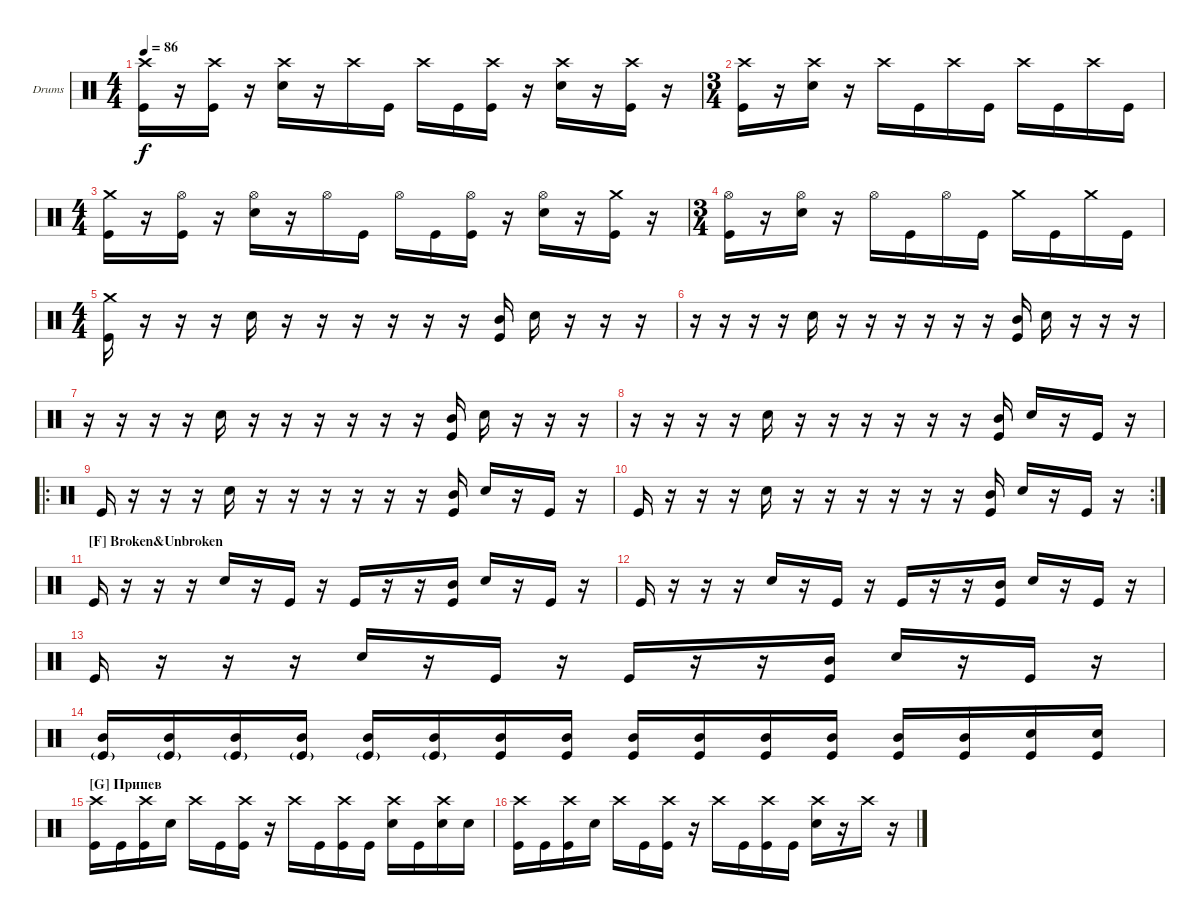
\bracketExtendMode groupsimilarinstruments
\firstSystemTrackNameOrientation horizontal
\otherSystemsTrackNameOrientation horizontal
\track ("Drumkit" "Drums") {instrument percussion}
\staff {score}
\articulation defaults
\ts (4 4)
\tempo 86
\clef neutral
\ks c
("Crash high (hit)" "Kick (hit)").16{dy f} r.16 ("Crash high (hit)" "Kick (hit)").16 r.16 ("Crash high (hit)" "Snare (hit) 2").16 r.16 "Crash high (hit)".16 "Kick (hit)".16 "Crash high (hit)".16 "Kick (hit)".16 ("Crash high (hit)" "Kick (hit)").16 r.16 ("Crash high (hit)" "Snare (hit) 2").16 r.16 ("Crash high (hit)" "Kick (hit)").16 r.16 |
\ts (3 4)
("Crash high (hit)" "Kick (hit)").16 r.16 ("Crash high (hit)" "Snare (hit) 2").16 r.16 "Crash high (hit)".16 "Kick (hit)".16 "Crash high (hit)".16 "Kick (hit)".16 "Crash high (hit)".16 "Kick (hit)".16 "Crash high (hit)".16 "Kick (hit)".16 |
\ts (4 4)
("Crash medium (hit)" "Kick (hit)").16 r.16 ("Hi-Hat (open)" "Kick (hit)").16 r.16 ("Snare (hit) 2" "Hi-Hat (open)").16 r.16 "Hi-Hat (open)".16 "Kick (hit)".16 "Hi-Hat (open)".16 "Kick (hit)".16 ("Kick (hit)" "Hi-Hat (open)").16 r.16 ("Snare (hit) 2" "Hi-Hat (open)").16 r.16 ("Crash medium (hit)" "Kick (hit)").16 r.16 |
\ts (3 4)
("Hi-Hat (open)" "Kick (hit)").16 r.16 ("Snare (hit) 2" "Hi-Hat (open)").16 r.16 "Hi-Hat (open)".16 "Kick (hit)".16 "Hi-Hat (open)".16 "Kick (hit)".16 "Crash medium (hit)".16 "Kick (hit)".16 "Crash medium (hit)".16 "Kick (hit)".16 |
\ts (4 4)
("Kick (hit)" "Crash medium (hit)").16 r.16 r.16 r.16 "Snare (hit) 2".16 r.16 r.16 r.16 r.16 r.16 r.16 ("Kick (hit)" "Mid Tom (hit)").16 "Snare (hit) 2".16 r.16 r.16 r.16 |
r.16 r.16 r.16 r.16 "Snare (hit) 2".16 r.16 r.16 r.16 r.16 r.16 r.16 ("Kick (hit)" "Mid Tom (hit)").16 "Snare (hit) 2".16 r.16 r.16 r.16 |
r.16 r.16 r.16 r.16 "Snare (hit) 2".16 r.16 r.16 r.16 r.16 r.16 r.16 ("Kick (hit)" "Mid Tom (hit)").16 "Snare (hit) 2".16 r.16 r.16 r.16 |
r.16 r.16 r.16 r.16 "Snare (hit) 2".16 r.16 r.16 r.16 r.16 r.16 r.16 ("Kick (hit)" "Mid Tom (hit)").16 "Snare (hit) 2".16 r.16 "Kick (hit)".16 r.16 |
\ro "Kick (hit)".16
r.16 r.16 r.16 "Snare (hit) 2".16 r.16 r.16 r.16 r.16 r.16 r.16 ("Kick (hit)" "Mid Tom (hit)").16 "Snare (hit) 2".16 r.16 "Kick (hit)".16 r.16 |
\rc 2 "Kick (hit)".16
r.16 r.16 r.16 "Snare (hit) 2".16 r.16 r.16 r.16 r.16 r.16 r.16 ("Kick (hit)" "Mid Tom (hit)").16 "Snare (hit) 2".16 r.16 "Kick (hit)".16 r.16 |
\section ("F" "Broken&Unbroken")
"Kick (hit)".16 r.16 r.16 r.16 "Snare (hit) 2".16 r.16 "Kick (hit)".16 r.16 "Kick (hit)".16 r.16 r.16 ("Kick (hit)" "Mid Tom (hit)").16 "Snare (hit) 2".16 r.16 "Kick (hit)".16 r.16 |
"Kick (hit)".16 r.16 r.16 r.16 "Snare (hit) 2".16 r.16 "Kick (hit)".16 r.16 "Kick (hit)".16 r.16 r.16 ("Kick (hit)" "Mid Tom (hit)").16 "Snare (hit) 2".16 r.16 "Kick (hit)".16 r.16 |
"Kick (hit)".16 r.16 r.16 r.16 "Snare (hit) 2".16 r.16 "Kick (hit)".16 r.16 "Kick (hit)".16 r.16 r.16 ("Kick (hit)" "Mid Tom (hit)").16 "Snare (hit) 2".16 r.16 "Kick (hit)".16 r.16 |
("Kick (hit)"{g} "Mid Tom (hit)").16 ("Kick (hit)"{g} "Mid Tom (hit)").16 ("Kick (hit)"{g} "Mid Tom (hit)").16 ("Kick (hit)"{g} "Mid Tom (hit)").16 ("Kick (hit)"{g} "Mid Tom (hit)").16 ("Kick (hit)"{g} "Mid Tom (hit)").16 ("Kick (hit)" "Mid Tom (hit)").16 ("Kick (hit)" "Mid Tom (hit)").16 ("Kick (hit)" "Mid Tom (hit)").16 ("Mid Tom (hit)" "Kick (hit)").16 ("Mid Tom (hit)" "Kick (hit)").16 ("Kick (hit)" "Mid Tom (hit)").16 ("Mid Tom (hit)" "Kick (hit)").16 ("Mid Tom (hit)" "Kick (hit)").16 ("Snare (hit) 2" "Kick (hit)").16 ("Snare (hit) 2" "Kick (hit)").16 |
\section ("G" "Припев")
("Crash high (hit)" "Kick (hit)").16 "Kick (hit)".16 ("Crash high (hit)" "Kick (hit)").16 "Snare (hit) 2".16 "Crash high (hit)".16 "Kick (hit)".16 ("Crash high (hit)" "Kick (hit)").16 r.16 "Crash high (hit)".16 "Kick (hit)".16 ("Crash high (hit)" "Kick (hit)").16 "Kick (hit)".16 ("Crash high (hit)" "Snare (hit) 2").16 "Kick (hit)".16 ("Crash high (hit)" "Snare (hit) 2").16 "Snare (hit) 2".16 |
("Crash high (hit)" "Kick (hit)").16 "Kick (hit)".16 ("Crash high (hit)" "Kick (hit)").16 "Snare (hit) 2".16 "Crash high (hit)".16 "Kick (hit)".16 ("Crash high (hit)" "Kick (hit)").16 r.16 "Crash high (hit)".16 "Kick (hit)".16 ("Crash high (hit)" "Kick (hit)").16 "Kick (hit)".16 ("Crash high (hit)" "Snare (hit) 2").16 r.16 "Crash high (hit)".16 r.16
